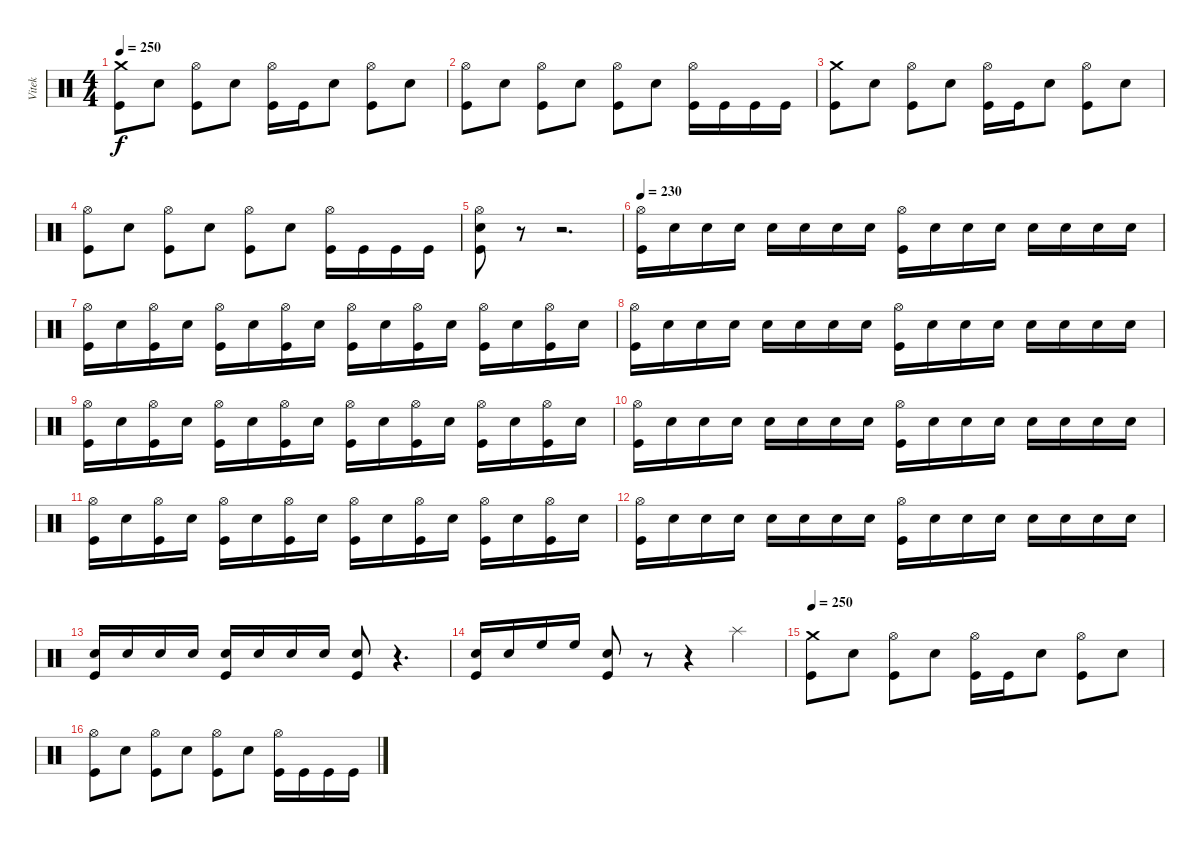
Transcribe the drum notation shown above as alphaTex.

\track ("Vitek" "Vitek") {instrument percussion}
\staff {score}
\articulation defaults
\ts (4 4)
\tempo 250
\clef neutral
\ks c
("Crash medium (hit)" "Kick (hit)").8{dy f} "Snare (hit) 2".8 ("Hi-Hat (open)" "Kick (hit)").8 "Snare (hit) 2".8 ("Hi-Hat (open)" "Kick (hit)").16 "Kick (hit)".16 "Snare (hit) 2".8 ("Hi-Hat (open)" "Kick (hit)").8 "Snare (hit) 2".8 |
("Hi-Hat (open)" "Kick (hit)").8 "Snare (hit) 2".8 ("Hi-Hat (open)" "Kick (hit)").8 "Snare (hit) 2".8 ("Hi-Hat (open)" "Kick (hit)").8 "Snare (hit) 2".8 ("Hi-Hat (open)" "Kick (hit)").16 "Kick (hit)".16 "Kick (hit)".16 "Kick (hit)".16 |
("Crash medium (hit)" "Kick (hit)").8 "Snare (hit) 2".8 ("Hi-Hat (open)" "Kick (hit)").8 "Snare (hit) 2".8 ("Hi-Hat (open)" "Kick (hit)").16 "Kick (hit)".16 "Snare (hit) 2".8 ("Hi-Hat (open)" "Kick (hit)").8 "Snare (hit) 2".8 |
("Hi-Hat (open)" "Kick (hit)").8 "Snare (hit) 2".8 ("Hi-Hat (open)" "Kick (hit)").8 "Snare (hit) 2".8 ("Hi-Hat (open)" "Kick (hit)").8 "Snare (hit) 2".8 ("Hi-Hat (open)" "Kick (hit)").16 "Kick (hit)".16 "Kick (hit)".16 "Kick (hit)".16 |
("Hi-Hat (open)" "Snare (hit) 2" "Kick (hit)").8 r.8 r.2{d} |
\tempo 230
("Hi-Hat (open)" "Kick (hit)").16 "Snare (hit) 2".16 "Snare (hit) 2".16 "Snare (hit) 2".16 "Snare (hit) 2".16 "Snare (hit) 2".16 "Snare (hit) 2".16 "Snare (hit) 2".16 ("Hi-Hat (open)" "Kick (hit)").16 "Snare (hit) 2".16 "Snare (hit) 2".16 "Snare (hit) 2".16 "Snare (hit) 2".16 "Snare (hit) 2".16 "Snare (hit) 2".16 "Snare (hit) 2".16 |
("Hi-Hat (open)" "Kick (hit)").16 "Snare (hit) 2".16 ("Hi-Hat (open)" "Kick (hit)").16 "Snare (hit) 2".16 ("Hi-Hat (open)" "Kick (hit)").16 "Snare (hit) 2".16 ("Hi-Hat (open)" "Kick (hit)").16 "Snare (hit) 2".16 ("Hi-Hat (open)" "Kick (hit)").16 "Snare (hit) 2".16 ("Hi-Hat (open)" "Kick (hit)").16 "Snare (hit) 2".16 ("Hi-Hat (open)" "Kick (hit)").16 "Snare (hit) 2".16 ("Hi-Hat (open)" "Kick (hit)").16 "Snare (hit) 2".16 |
("Hi-Hat (open)" "Kick (hit)").16 "Snare (hit) 2".16 "Snare (hit) 2".16 "Snare (hit) 2".16 "Snare (hit) 2".16 "Snare (hit) 2".16 "Snare (hit) 2".16 "Snare (hit) 2".16 ("Hi-Hat (open)" "Kick (hit)").16 "Snare (hit) 2".16 "Snare (hit) 2".16 "Snare (hit) 2".16 "Snare (hit) 2".16 "Snare (hit) 2".16 "Snare (hit) 2".16 "Snare (hit) 2".16 |
("Hi-Hat (open)" "Kick (hit)").16 "Snare (hit) 2".16 ("Hi-Hat (open)" "Kick (hit)").16 "Snare (hit) 2".16 ("Hi-Hat (open)" "Kick (hit)").16 "Snare (hit) 2".16 ("Hi-Hat (open)" "Kick (hit)").16 "Snare (hit) 2".16 ("Hi-Hat (open)" "Kick (hit)").16 "Snare (hit) 2".16 ("Hi-Hat (open)" "Kick (hit)").16 "Snare (hit) 2".16 ("Hi-Hat (open)" "Kick (hit)").16 "Snare (hit) 2".16 ("Hi-Hat (open)" "Kick (hit)").16 "Snare (hit) 2".16 |
("Hi-Hat (open)" "Kick (hit)").16 "Snare (hit) 2".16 "Snare (hit) 2".16 "Snare (hit) 2".16 "Snare (hit) 2".16 "Snare (hit) 2".16 "Snare (hit) 2".16 "Snare (hit) 2".16 ("Hi-Hat (open)" "Kick (hit)").16 "Snare (hit) 2".16 "Snare (hit) 2".16 "Snare (hit) 2".16 "Snare (hit) 2".16 "Snare (hit) 2".16 "Snare (hit) 2".16 "Snare (hit) 2".16 |
("Hi-Hat (open)" "Kick (hit)").16 "Snare (hit) 2".16 ("Hi-Hat (open)" "Kick (hit)").16 "Snare (hit) 2".16 ("Hi-Hat (open)" "Kick (hit)").16 "Snare (hit) 2".16 ("Hi-Hat (open)" "Kick (hit)").16 "Snare (hit) 2".16 ("Hi-Hat (open)" "Kick (hit)").16 "Snare (hit) 2".16 ("Hi-Hat (open)" "Kick (hit)").16 "Snare (hit) 2".16 ("Hi-Hat (open)" "Kick (hit)").16 "Snare (hit) 2".16 ("Hi-Hat (open)" "Kick (hit)").16 "Snare (hit) 2".16 |
("Hi-Hat (open)" "Kick (hit)").16 "Snare (hit) 2".16 "Snare (hit) 2".16 "Snare (hit) 2".16 "Snare (hit) 2".16 "Snare (hit) 2".16 "Snare (hit) 2".16 "Snare (hit) 2".16 ("Hi-Hat (open)" "Kick (hit)").16 "Snare (hit) 2".16 "Snare (hit) 2".16 "Snare (hit) 2".16 "Snare (hit) 2".16 "Snare (hit) 2".16 "Snare (hit) 2".16 "Snare (hit) 2".16 |
("Snare (hit) 2" "Kick (hit)").16 "Snare (hit) 2".16 "Snare (hit) 2".16 "Snare (hit) 2".16 ("Snare (hit) 2" "Kick (hit)").16 "Snare (hit) 2".16 "Snare (hit) 2".16 "Snare (hit) 2".16 ("Snare (hit) 2" "Kick (hit)").8 r.4{d} |
("Snare (hit) 2" "Kick (hit)").16 "Snare (hit) 2".16 "High Floor Tom (hit)".16 "High Floor Tom (hit)".16 ("Snare (hit) 2" "Kick (hit)").8 r.8 r.4 "Splash (hit)".4 |
\tempo 250
("Crash medium (hit)" "Kick (hit)").8 "Snare (hit) 2".8 ("Hi-Hat (open)" "Kick (hit)").8 "Snare (hit) 2".8 ("Hi-Hat (open)" "Kick (hit)").16 "Kick (hit)".16 "Snare (hit) 2".8 ("Hi-Hat (open)" "Kick (hit)").8 "Snare (hit) 2".8 |
("Hi-Hat (open)" "Kick (hit)").8 "Snare (hit) 2".8 ("Hi-Hat (open)" "Kick (hit)").8 "Snare (hit) 2".8 ("Hi-Hat (open)" "Kick (hit)").8 "Snare (hit) 2".8 ("Hi-Hat (open)" "Kick (hit)").16 "Kick (hit)".16 "Kick (hit)".16 "Kick (hit)".16
